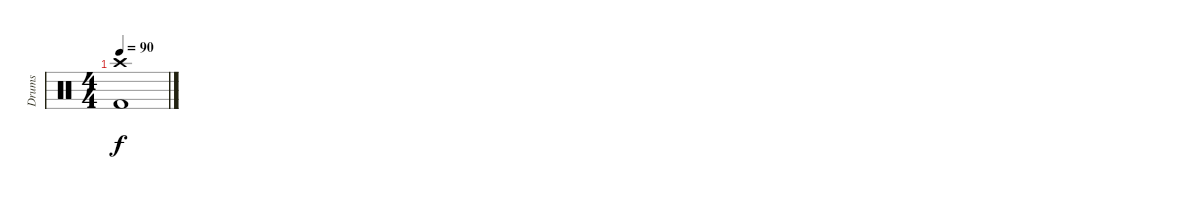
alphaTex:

\track ("Drums" "Drums") {instrument percussion}
\staff {score}
\articulation defaults
\ts (4 4)
\tempo 90
\clef neutral
\ks c
("Kick (hit) 2" "Crash high (hit)").1{dy f}
